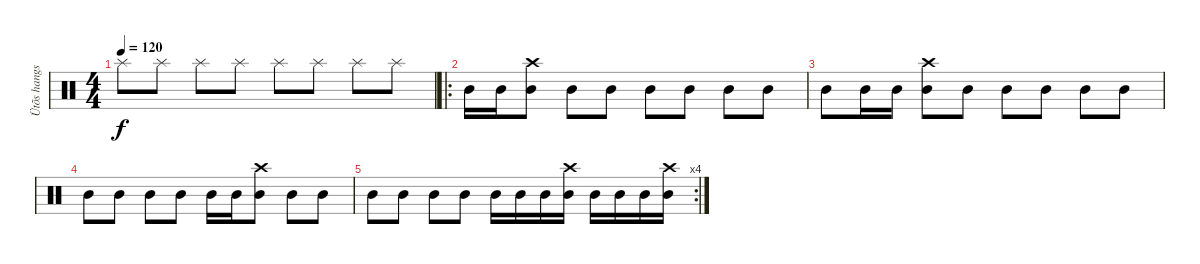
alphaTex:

\track ("Ütõs hangszer" "Ütõs hangs") {instrument percussion}
\staff {score}
\articulation defaults
\ts (4 4)
\tempo 120
\clef neutral
\ks c "Splash (hit)".8{dy f} "Splash (hit)".8 "Splash (hit)".8 "Splash (hit)".8 "Splash (hit)".8 "Splash (hit)".8 "Splash (hit)".8 "Splash (hit)".8
|
\ro "Mid Tom (hit)".16 "Mid Tom (hit)".16
("Mid Tom (hit)" "Crash high (hit)").8 "Mid Tom (hit)".8 "Mid Tom (hit)".8 "Mid Tom (hit)".8 "Mid Tom (hit)".8 "Mid Tom (hit)".8 "Mid Tom (hit)".8 |
"Mid Tom (hit)".8 "Mid Tom (hit)".16 "Mid Tom (hit)".16 ("Mid Tom (hit)" "Crash high (hit)").8 "Mid Tom (hit)".8 "Mid Tom (hit)".8 "Mid Tom (hit)".8 "Mid Tom (hit)".8 "Mid Tom (hit)".8 |
"Mid Tom (hit)".8 "Mid Tom (hit)".8 "Mid Tom (hit)".8 "Mid Tom (hit)".8 "Mid Tom (hit)".16 "Mid Tom (hit)".16 ("Mid Tom (hit)" "Crash high (hit)").8 "Mid Tom (hit)".8 "Mid Tom (hit)".8 |
\rc 4 "Mid Tom (hit)".8 "Mid Tom (hit)".8 "Mid Tom (hit)".8 "Mid Tom (hit)".8 "Mid Tom (hit)".16 "Mid Tom (hit)".16 "Mid Tom (hit)".16
("Mid Tom (hit)" "Crash high (hit)").16 "Mid Tom (hit)".16 "Mid Tom (hit)".16 "Mid Tom (hit)".16 ("Mid Tom (hit)" "Crash high (hit)").16
